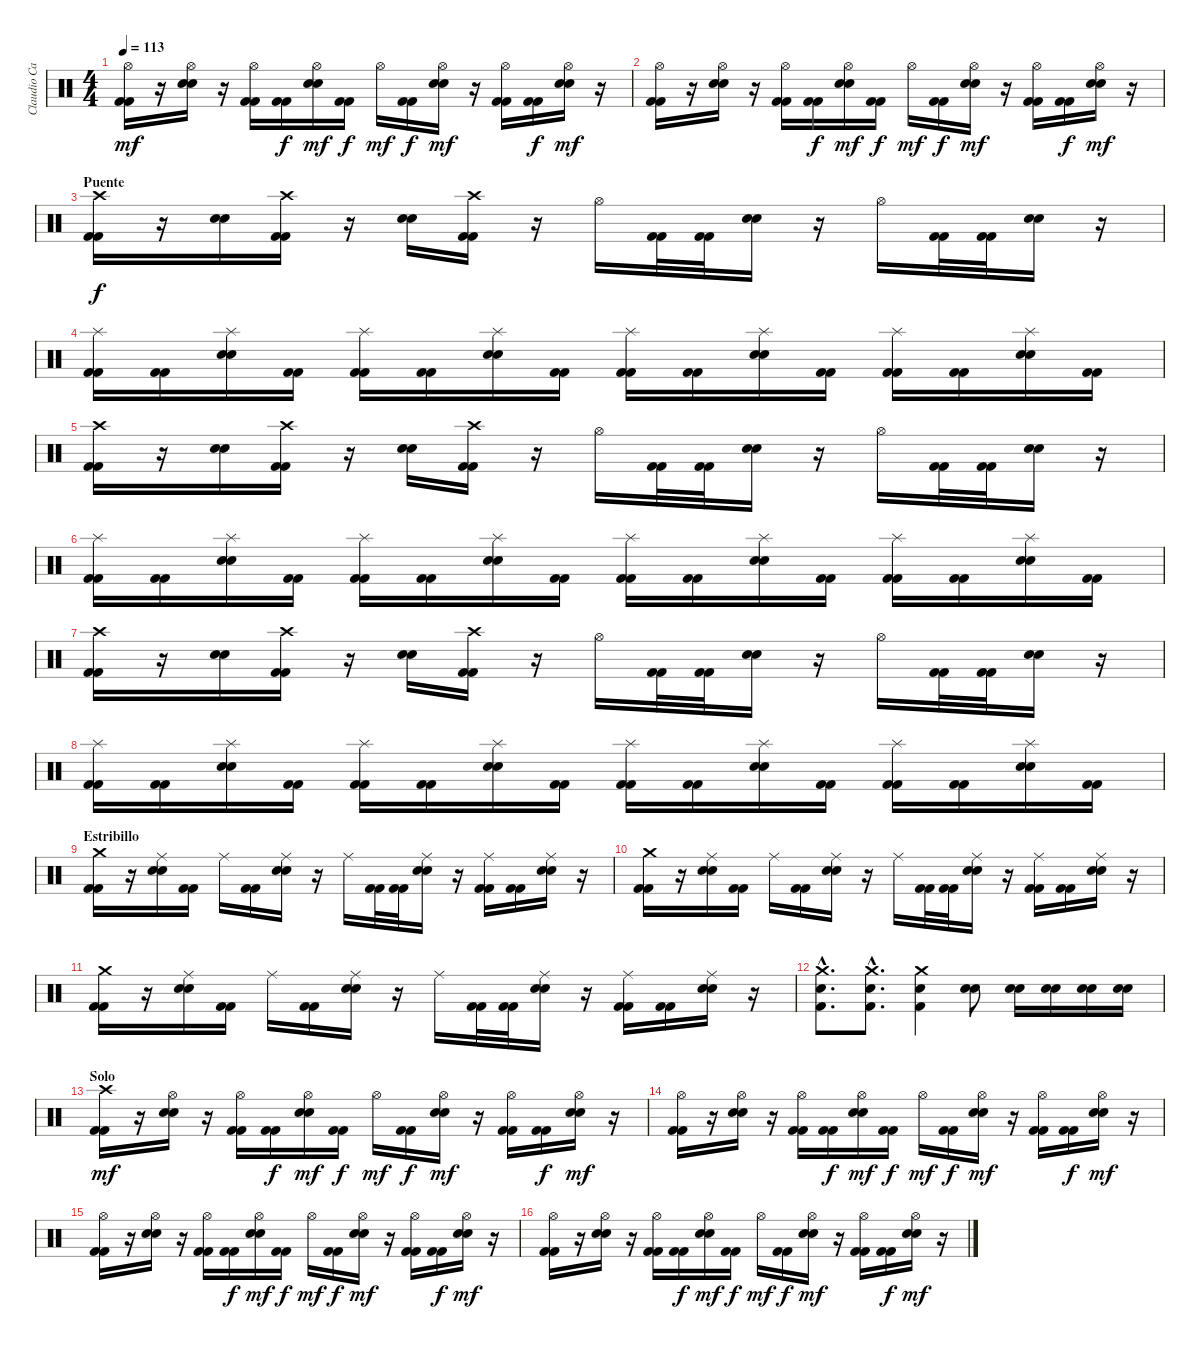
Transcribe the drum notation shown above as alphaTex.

\track ("Claudio Cardaci (bateria)" "Claudio Ca") {instrument percussion}
\staff {score}
\articulation defaults
\ts (4 4)
\tempo 113
\clef neutral
\ks c
("Hi-Hat (open)" "Kick (hit) 2" "Kick (hit) 2").16{dy mf} r.16 ("Hi-Hat (open)" "Snare (hit) 2" "Snare (hit) 2").16 r.16 ("Hi-Hat (open)" "Kick (hit) 2" "Kick (hit) 2").16 ("Kick (hit) 2" "Kick (hit) 2").16{dy f} ("Hi-Hat (open)" "Snare (hit) 2" "Snare (hit) 2").16{dy mf} ("Kick (hit) 2" "Kick (hit) 2").16{dy f} "Hi-Hat (open)".16{dy mf} ("Kick (hit) 2" "Kick (hit) 2").16{dy f} ("Hi-Hat (open)" "Snare (hit) 2" "Snare (hit) 2").16{dy mf} r.16 ("Hi-Hat (open)" "Kick (hit) 2" "Kick (hit) 2").16 ("Kick (hit) 2" "Kick (hit) 2").16{dy f} ("Hi-Hat (open)" "Snare (hit) 2" "Snare (hit) 2").16{dy mf} r.16 |
("Hi-Hat (open)" "Kick (hit) 2" "Kick (hit) 2").16 r.16 ("Hi-Hat (open)" "Snare (hit) 2" "Snare (hit) 2").16 r.16 ("Hi-Hat (open)" "Kick (hit) 2" "Kick (hit) 2").16 ("Kick (hit) 2" "Kick (hit) 2").16{dy f} ("Hi-Hat (open)" "Snare (hit) 2" "Snare (hit) 2").16{dy mf} ("Kick (hit) 2" "Kick (hit) 2").16{dy f} "Hi-Hat (open)".16{dy mf} ("Kick (hit) 2" "Kick (hit) 2").16{dy f} ("Hi-Hat (open)" "Snare (hit) 2" "Snare (hit) 2").16{dy mf} r.16 ("Hi-Hat (open)" "Kick (hit) 2" "Kick (hit) 2").16 ("Kick (hit) 2" "Kick (hit) 2").16{dy f} ("Hi-Hat (open)" "Snare (hit) 2" "Snare (hit) 2").16{dy mf} r.16 |
\section ("" "Puente")
("Crash high (hit)" "Kick (hit) 2" "Kick (hit) 2").16{dy f} r.16 ("Snare (hit) 2" "Snare (hit) 2").16 ("Crash high (hit)" "Kick (hit) 2" "Kick (hit) 2").16 r.16 ("Snare (hit) 2" "Snare (hit) 2").16 ("Crash high (hit)" "Kick (hit) 2" "Kick (hit) 2").16 r.16 "Hi-Hat (open)".16 ("Kick (hit) 2" "Kick (hit) 2").32 ("Kick (hit) 2" "Kick (hit) 2").32 ("Snare (hit) 2" "Snare (hit) 2").16 r.16 "Hi-Hat (open)".16 ("Kick (hit) 2" "Kick (hit) 2").32 ("Kick (hit) 2" "Kick (hit) 2").32 ("Snare (hit) 2" "Snare (hit) 2").16 r.16 |
("Splash (hit)" "Kick (hit) 2" "Kick (hit) 2").16 ("Kick (hit) 2" "Kick (hit) 2").16 ("Splash (hit)" "Snare (hit) 2" "Snare (hit) 2").16 ("Kick (hit) 2" "Kick (hit) 2").16 ("Splash (hit)" "Kick (hit) 2" "Kick (hit) 2").16 ("Kick (hit) 2" "Kick (hit) 2").16 ("Splash (hit)" "Snare (hit) 2" "Snare (hit) 2").16 ("Kick (hit) 2" "Kick (hit) 2").16 ("Splash (hit)" "Kick (hit) 2" "Kick (hit) 2").16 ("Kick (hit) 2" "Kick (hit) 2").16 ("Splash (hit)" "Snare (hit) 2" "Snare (hit) 2").16 ("Kick (hit) 2" "Kick (hit) 2").16 ("Splash (hit)" "Kick (hit) 2" "Kick (hit) 2").16 ("Kick (hit) 2" "Kick (hit) 2").16 ("Splash (hit)" "Snare (hit) 2" "Snare (hit) 2").16 ("Kick (hit) 2" "Kick (hit) 2").16 |
("Crash high (hit)" "Kick (hit) 2" "Kick (hit) 2").16 r.16 ("Snare (hit) 2" "Snare (hit) 2").16 ("Crash high (hit)" "Kick (hit) 2" "Kick (hit) 2").16 r.16 ("Snare (hit) 2" "Snare (hit) 2").16 ("Crash high (hit)" "Kick (hit) 2" "Kick (hit) 2").16 r.16 "Hi-Hat (open)".16 ("Kick (hit) 2" "Kick (hit) 2").32 ("Kick (hit) 2" "Kick (hit) 2").32 ("Snare (hit) 2" "Snare (hit) 2").16 r.16 "Hi-Hat (open)".16 ("Kick (hit) 2" "Kick (hit) 2").32 ("Kick (hit) 2" "Kick (hit) 2").32 ("Snare (hit) 2" "Snare (hit) 2").16 r.16 |
("Splash (hit)" "Kick (hit) 2" "Kick (hit) 2").16 ("Kick (hit) 2" "Kick (hit) 2").16 ("Splash (hit)" "Snare (hit) 2" "Snare (hit) 2").16 ("Kick (hit) 2" "Kick (hit) 2").16 ("Splash (hit)" "Kick (hit) 2" "Kick (hit) 2").16 ("Kick (hit) 2" "Kick (hit) 2").16 ("Splash (hit)" "Snare (hit) 2" "Snare (hit) 2").16 ("Kick (hit) 2" "Kick (hit) 2").16 ("Splash (hit)" "Kick (hit) 2" "Kick (hit) 2").16 ("Kick (hit) 2" "Kick (hit) 2").16 ("Splash (hit)" "Snare (hit) 2" "Snare (hit) 2").16 ("Kick (hit) 2" "Kick (hit) 2").16 ("Splash (hit)" "Kick (hit) 2" "Kick (hit) 2").16 ("Kick (hit) 2" "Kick (hit) 2").16 ("Splash (hit)" "Snare (hit) 2" "Snare (hit) 2").16 ("Kick (hit) 2" "Kick (hit) 2").16 |
("Crash high (hit)" "Kick (hit) 2" "Kick (hit) 2").16 r.16 ("Snare (hit) 2" "Snare (hit) 2").16 ("Crash high (hit)" "Kick (hit) 2" "Kick (hit) 2").16 r.16 ("Snare (hit) 2" "Snare (hit) 2").16 ("Crash high (hit)" "Kick (hit) 2" "Kick (hit) 2").16 r.16 "Hi-Hat (open)".16 ("Kick (hit) 2" "Kick (hit) 2").32 ("Kick (hit) 2" "Kick (hit) 2").32 ("Snare (hit) 2" "Snare (hit) 2").16 r.16 "Hi-Hat (open)".16 ("Kick (hit) 2" "Kick (hit) 2").32 ("Kick (hit) 2" "Kick (hit) 2").32 ("Snare (hit) 2" "Snare (hit) 2").16 r.16 |
("Splash (hit)" "Kick (hit) 2" "Kick (hit) 2").16 ("Kick (hit) 2" "Kick (hit) 2").16 ("Splash (hit)" "Snare (hit) 2" "Snare (hit) 2").16 ("Kick (hit) 2" "Kick (hit) 2").16 ("Splash (hit)" "Kick (hit) 2" "Kick (hit) 2").16 ("Kick (hit) 2" "Kick (hit) 2").16 ("Splash (hit)" "Snare (hit) 2" "Snare (hit) 2").16 ("Kick (hit) 2" "Kick (hit) 2").16 ("Splash (hit)" "Kick (hit) 2" "Kick (hit) 2").16 ("Kick (hit) 2" "Kick (hit) 2").16 ("Splash (hit)" "Snare (hit) 2" "Snare (hit) 2").16 ("Kick (hit) 2" "Kick (hit) 2").16 ("Splash (hit)" "Kick (hit) 2" "Kick (hit) 2").16 ("Kick (hit) 2" "Kick (hit) 2").16 ("Splash (hit)" "Snare (hit) 2" "Snare (hit) 2").16 ("Kick (hit) 2" "Kick (hit) 2").16 |
\section ("" "Estribillo")
("Crash medium (hit)" "Kick (hit) 2" "Kick (hit) 2").16 r.16 ("Ride (middle)" "Snare (hit) 2" "Snare (hit) 2").16 ("Kick (hit) 2" "Kick (hit) 2").16 "Ride (middle)".16 ("Kick (hit) 2" "Kick (hit) 2").16 ("Ride (middle)" "Snare (hit) 2" "Snare (hit) 2").16 r.16 "Ride (middle)".16 ("Kick (hit) 2" "Kick (hit) 2").32 ("Kick (hit) 2" "Kick (hit) 2").32 ("Ride (middle)" "Snare (hit) 2" "Snare (hit) 2").16 r.16 ("Ride (middle)" "Kick (hit) 2" "Kick (hit) 2").16 ("Kick (hit) 2" "Kick (hit) 2").16 ("Ride (middle)" "Snare (hit) 2" "Snare (hit) 2").16 r.16 |
("Crash medium (hit)" "Kick (hit) 2" "Kick (hit) 2").16 r.16 ("Ride (middle)" "Snare (hit) 2" "Snare (hit) 2").16 ("Kick (hit) 2" "Kick (hit) 2").16 "Ride (middle)".16 ("Kick (hit) 2" "Kick (hit) 2").16 ("Ride (middle)" "Snare (hit) 2" "Snare (hit) 2").16 r.16 "Ride (middle)".16 ("Kick (hit) 2" "Kick (hit) 2").32 ("Kick (hit) 2" "Kick (hit) 2").32 ("Ride (middle)" "Snare (hit) 2" "Snare (hit) 2").16 r.16 ("Ride (middle)" "Kick (hit) 2" "Kick (hit) 2").16 ("Kick (hit) 2" "Kick (hit) 2").16 ("Ride (middle)" "Snare (hit) 2" "Snare (hit) 2").16 r.16 |
("Crash medium (hit)" "Kick (hit) 2" "Kick (hit) 2").16 r.16 ("Ride (middle)" "Snare (hit) 2" "Snare (hit) 2").16 ("Kick (hit) 2" "Kick (hit) 2").16 "Ride (middle)".16 ("Kick (hit) 2" "Kick (hit) 2").16 ("Ride (middle)" "Snare (hit) 2" "Snare (hit) 2").16 r.16 "Ride (middle)".16 ("Kick (hit) 2" "Kick (hit) 2").32 ("Kick (hit) 2" "Kick (hit) 2").32 ("Ride (middle)" "Snare (hit) 2" "Snare (hit) 2").16 r.16 ("Ride (middle)" "Kick (hit) 2" "Kick (hit) 2").16 ("Kick (hit) 2" "Kick (hit) 2").16 ("Ride (middle)" "Snare (hit) 2" "Snare (hit) 2").16 r.16 |
("Crash medium (hit)"{hac} "Snare (hit) 2"{hac} "Kick (hit) 2"{hac}).8{d} ("Crash medium (hit)"{hac} "Snare (hit) 2"{hac} "Kick (hit) 2"{hac}).8{d} ("Crash medium (hit)" "Snare (hit) 2" "Kick (hit) 2").4 ("Electric Snare (hit)" "Electric Snare (hit)").8 ("Snare (hit) 2" "Snare (hit) 2").16 ("Snare (hit) 2" "Snare (hit) 2").16 ("Snare (hit) 2" "Snare (hit) 2").16 ("Snare (hit) 2" "Snare (hit) 2").16 |
\section ("" "Solo")
("Crash high (hit)" "Kick (hit) 2" "Kick (hit) 2").16{dy mf} r.16 ("Hi-Hat (open)" "Snare (hit) 2" "Snare (hit) 2").16 r.16 ("Hi-Hat (open)" "Kick (hit) 2" "Kick (hit) 2").16 ("Kick (hit) 2" "Kick (hit) 2").16{dy f} ("Hi-Hat (open)" "Snare (hit) 2" "Snare (hit) 2").16{dy mf} ("Kick (hit) 2" "Kick (hit) 2").16{dy f} "Hi-Hat (open)".16{dy mf} ("Kick (hit) 2" "Kick (hit) 2").16{dy f} ("Hi-Hat (open)" "Snare (hit) 2" "Snare (hit) 2").16{dy mf} r.16 ("Hi-Hat (open)" "Kick (hit) 2" "Kick (hit) 2").16 ("Kick (hit) 2" "Kick (hit) 2").16{dy f} ("Hi-Hat (open)" "Snare (hit) 2" "Snare (hit) 2").16{dy mf} r.16 |
("Hi-Hat (open)" "Kick (hit) 2" "Kick (hit) 2").16 r.16 ("Hi-Hat (open)" "Snare (hit) 2" "Snare (hit) 2").16 r.16 ("Hi-Hat (open)" "Kick (hit) 2" "Kick (hit) 2").16 ("Kick (hit) 2" "Kick (hit) 2").16{dy f} ("Hi-Hat (open)" "Snare (hit) 2" "Snare (hit) 2").16{dy mf} ("Kick (hit) 2" "Kick (hit) 2").16{dy f} "Hi-Hat (open)".16{dy mf} ("Kick (hit) 2" "Kick (hit) 2").16{dy f} ("Hi-Hat (open)" "Snare (hit) 2" "Snare (hit) 2").16{dy mf} r.16 ("Hi-Hat (open)" "Kick (hit) 2" "Kick (hit) 2").16 ("Kick (hit) 2" "Kick (hit) 2").16{dy f} ("Hi-Hat (open)" "Snare (hit) 2" "Snare (hit) 2").16{dy mf} r.16 |
("Hi-Hat (open)" "Kick (hit) 2" "Kick (hit) 2").16 r.16 ("Hi-Hat (open)" "Snare (hit) 2" "Snare (hit) 2").16 r.16 ("Hi-Hat (open)" "Kick (hit) 2" "Kick (hit) 2").16 ("Kick (hit) 2" "Kick (hit) 2").16{dy f} ("Hi-Hat (open)" "Snare (hit) 2" "Snare (hit) 2").16{dy mf} ("Kick (hit) 2" "Kick (hit) 2").16{dy f} "Hi-Hat (open)".16{dy mf} ("Kick (hit) 2" "Kick (hit) 2").16{dy f} ("Hi-Hat (open)" "Snare (hit) 2" "Snare (hit) 2").16{dy mf} r.16 ("Hi-Hat (open)" "Kick (hit) 2" "Kick (hit) 2").16 ("Kick (hit) 2" "Kick (hit) 2").16{dy f} ("Hi-Hat (open)" "Snare (hit) 2" "Snare (hit) 2").16{dy mf} r.16 |
("Hi-Hat (open)" "Kick (hit) 2" "Kick (hit) 2").16 r.16 ("Hi-Hat (open)" "Snare (hit) 2" "Snare (hit) 2").16 r.16 ("Hi-Hat (open)" "Kick (hit) 2" "Kick (hit) 2").16 ("Kick (hit) 2" "Kick (hit) 2").16{dy f} ("Hi-Hat (open)" "Snare (hit) 2" "Snare (hit) 2").16{dy mf} ("Kick (hit) 2" "Kick (hit) 2").16{dy f} "Hi-Hat (open)".16{dy mf} ("Kick (hit) 2" "Kick (hit) 2").16{dy f} ("Hi-Hat (open)" "Snare (hit) 2" "Snare (hit) 2").16{dy mf} r.16 ("Hi-Hat (open)" "Kick (hit) 2" "Kick (hit) 2").16 ("Kick (hit) 2" "Kick (hit) 2").16{dy f} ("Hi-Hat (open)" "Snare (hit) 2" "Snare (hit) 2").16{dy mf} r.16
